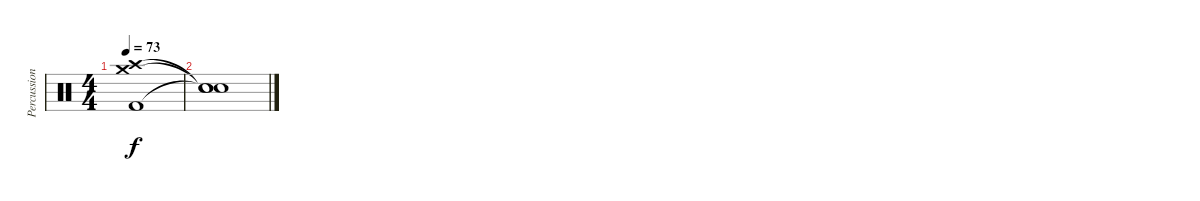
\track ("Percussion" "Percussion") {instrument percussion}
\staff {score}
\articulation defaults
\ts (4 4)
\tempo 73
\clef neutral
\ks c
("Crash medium (hit)" "Crash high (hit)" "Kick (hit) 2").1{dy f} |
("Snare (hit)"{t} "Snare (hit)"{t} "Snare (hit)"{t}).1
